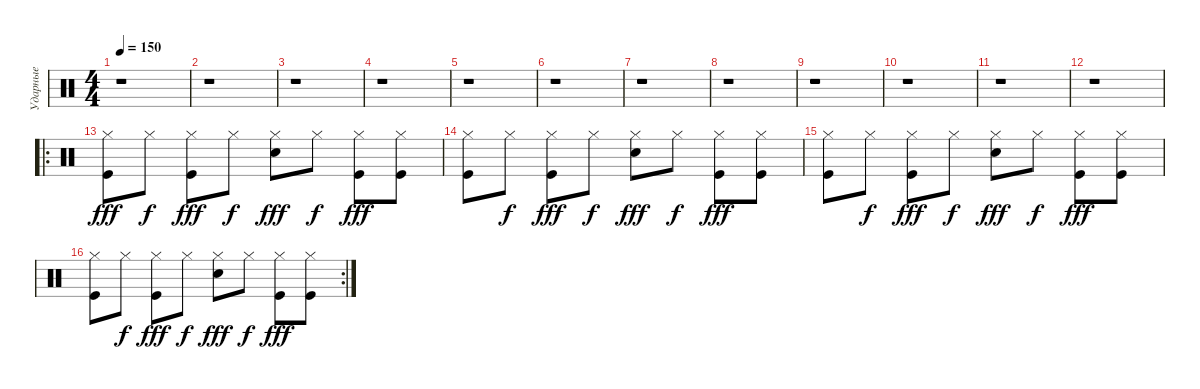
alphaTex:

\track ("Ударные" "Ударные") {instrument percussion}
\staff {score}
\articulation defaults
\ts (4 4)
\tempo 150
\clef neutral
\ks c
r.1{dy fff} |
r.1 |
r.1 |
r.1 |
r.1 |
r.1 |
r.1 |
r.1 |
r.1 |
r.1 |
r.1 |
r.1 |
\ro
("Hi-Hat (closed)" "Kick (hit)").8 "Hi-Hat (closed)".8{dy f} ("Hi-Hat (closed)" "Kick (hit)").8{dy fff} "Hi-Hat (closed)".8{dy f} ("Hi-Hat (closed)" "Electric Snare (hit)").8{dy fff} "Hi-Hat (closed)".8{dy f} ("Hi-Hat (closed)" "Kick (hit)").8{dy fff} ("Hi-Hat (closed)" "Kick (hit)").8 |
("Hi-Hat (closed)" "Kick (hit)").8 "Hi-Hat (closed)".8{dy f} ("Hi-Hat (closed)" "Kick (hit)").8{dy fff} "Hi-Hat (closed)".8{dy f} ("Hi-Hat (closed)" "Electric Snare (hit)").8{dy fff} "Hi-Hat (closed)".8{dy f} ("Hi-Hat (closed)" "Kick (hit)").8{dy fff} ("Hi-Hat (closed)" "Kick (hit)").8 |
("Hi-Hat (closed)" "Kick (hit)").8 "Hi-Hat (closed)".8{dy f} ("Hi-Hat (closed)" "Kick (hit)").8{dy fff} "Hi-Hat (closed)".8{dy f} ("Hi-Hat (closed)" "Electric Snare (hit)").8{dy fff} "Hi-Hat (closed)".8{dy f} ("Hi-Hat (closed)" "Kick (hit)").8{dy fff} ("Hi-Hat (closed)" "Kick (hit)").8 |
\rc 2
("Hi-Hat (closed)" "Kick (hit)").8 "Hi-Hat (closed)".8{dy f} ("Hi-Hat (closed)" "Kick (hit)").8{dy fff} "Hi-Hat (closed)".8{dy f} ("Hi-Hat (closed)" "Electric Snare (hit)").8{dy fff} "Hi-Hat (closed)".8{dy f} ("Hi-Hat (closed)" "Kick (hit)").8{dy fff} ("Hi-Hat (closed)" "Kick (hit)").8
